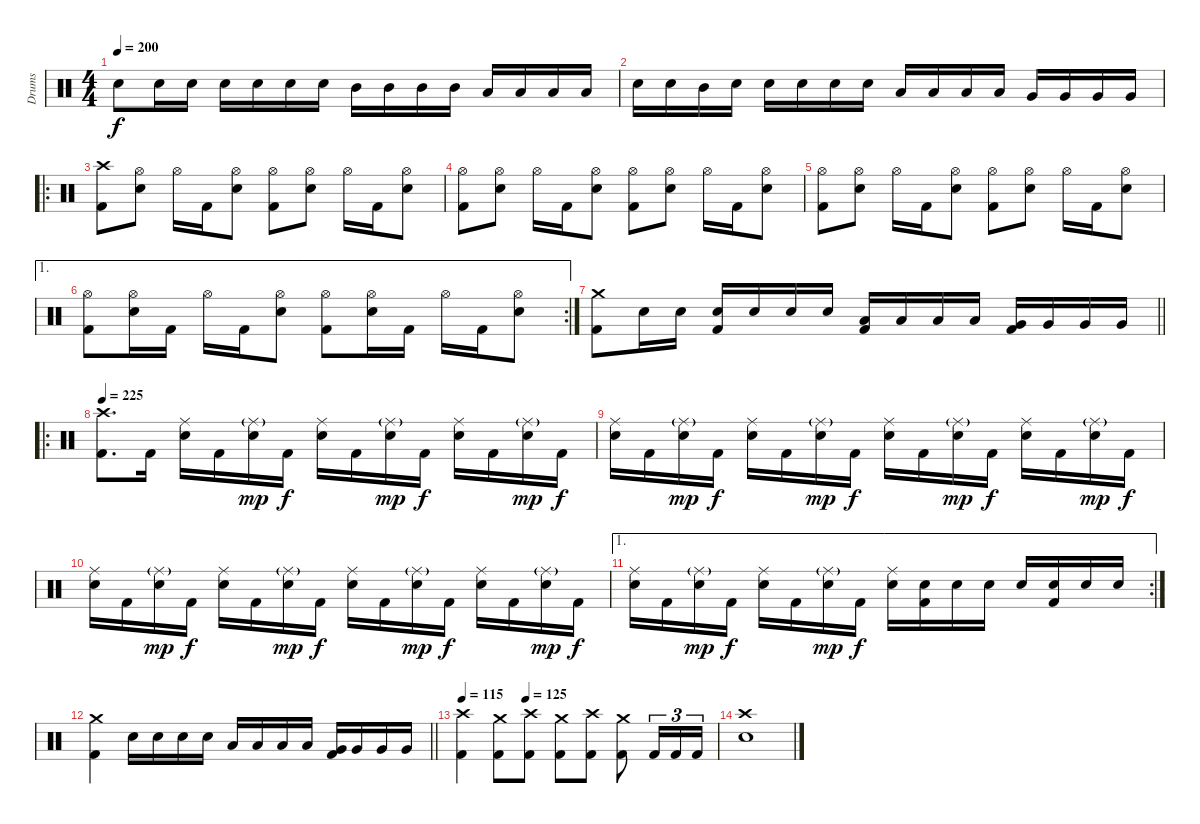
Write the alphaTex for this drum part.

\track ("Drums" "Drums") {instrument percussion}
\staff {score}
\articulation defaults
\ts (4 4)
\tempo 200
\clef neutral
\ks c "Electric Snare (hit)".8{dy f} "Electric Snare (hit)".16 "Electric Snare (hit)".16 "Electric Snare (hit)".16 "Electric Snare (hit)".16 "Electric Snare (hit)".16 "Electric Snare (hit)".16 "Mid Tom (hit)".16 "Mid Tom (hit)".16 "Mid Tom (hit)".16 "Mid Tom (hit)".16 "Low Tom (hit)".16 "Low Tom (hit)".16 "Low Tom (hit)".16 "Low Tom (hit)".16
|
"Electric Snare (hit)".16 "Electric Snare (hit)".16 "Mid Tom (hit)".16 "Electric Snare (hit)".16 "Electric Snare (hit)".16 "Electric Snare (hit)".16 "Electric Snare (hit)".16 "Electric Snare (hit)".16 "Low Tom (hit)".16 "Low Tom (hit)".16 "Low Tom (hit)".16 "Low Tom (hit)".16 "Very Low Tom (hit)".16 "Very Low Tom (hit)".16 "Very Low Tom (hit)".16 "Very Low Tom (hit)".16 |
\ro
("Crash high (hit)" "Kick (hit) 2").8 ("Hi-Hat (open)" "Electric Snare (hit)").8 "Hi-Hat (open)".16 "Kick (hit) 2".16 ("Hi-Hat (open)" "Electric Snare (hit)").8 ("Hi-Hat (open)" "Kick (hit) 2").8 ("Hi-Hat (open)" "Electric Snare (hit)").8 "Hi-Hat (open)".16 "Kick (hit) 2".16 ("Hi-Hat (open)" "Electric Snare (hit)").8 |
("Hi-Hat (open)" "Kick (hit) 2").8 ("Hi-Hat (open)" "Electric Snare (hit)").8 "Hi-Hat (open)".16 "Kick (hit) 2".16 ("Hi-Hat (open)" "Electric Snare (hit)").8 ("Hi-Hat (open)" "Kick (hit) 2").8 ("Hi-Hat (open)" "Electric Snare (hit)").8 "Hi-Hat (open)".16 "Kick (hit) 2".16 ("Hi-Hat (open)" "Electric Snare (hit)").8 |
("Hi-Hat (open)" "Kick (hit) 2").8 ("Hi-Hat (open)" "Electric Snare (hit)").8 "Hi-Hat (open)".16 "Kick (hit) 2".16 ("Hi-Hat (open)" "Electric Snare (hit)").8 ("Hi-Hat (open)" "Kick (hit) 2").8 ("Hi-Hat (open)" "Electric Snare (hit)").8 "Hi-Hat (open)".16 "Kick (hit) 2".16 ("Hi-Hat (open)" "Electric Snare (hit)").8 |
\ae 1
\rc 2
("Hi-Hat (open)" "Kick (hit) 2").8 ("Hi-Hat (open)" "Electric Snare (hit)").16 "Kick (hit) 2".16 "Hi-Hat (open)".16 "Kick (hit) 2".16 ("Hi-Hat (open)" "Electric Snare (hit)").8 ("Hi-Hat (open)" "Kick (hit) 2").8 ("Hi-Hat (open)" "Electric Snare (hit)").16 "Kick (hit) 2".16 "Hi-Hat (open)".16 "Kick (hit) 2".16 ("Hi-Hat (open)" "Electric Snare (hit)").8 |
\barLineRight lightlight
("Crash medium (hit)" "Kick (hit) 2").8 "Electric Snare (hit)".16 "Electric Snare (hit)".16 ("Electric Snare (hit)" "Kick (hit) 2").16 "Electric Snare (hit)".16 "Electric Snare (hit)".16 "Electric Snare (hit)".16 ("Low Tom (hit)" "Kick (hit) 2").16 "Low Tom (hit)".16 "Low Tom (hit)".16 "Low Tom (hit)".16 ("Very Low Tom (hit)" "Kick (hit) 2").16 "Very Low Tom (hit)".16 "Very Low Tom (hit)".16 "Very Low Tom (hit)".16 |
\ro
\section ("" "")
\tempo 225
("Crash high (hit)" "Kick (hit) 2").8{d} "Kick (hit) 2".16 ("Ride (middle)" "Electric Snare (hit)").16 "Kick (hit) 2".16 ("Ride (middle)"{g} "Electric Snare (hit)").16{dy mp} "Kick (hit) 2".16{dy f} ("Ride (middle)" "Electric Snare (hit)").16 "Kick (hit) 2".16 ("Ride (middle)"{g} "Electric Snare (hit)").16{dy mp} "Kick (hit) 2".16{dy f} ("Ride (middle)" "Electric Snare (hit)").16 "Kick (hit) 2".16 ("Ride (middle)"{g} "Electric Snare (hit)").16{dy mp} "Kick (hit) 2".16{dy f} |
("Ride (middle)" "Electric Snare (hit)").16 "Kick (hit) 2".16 ("Ride (middle)"{g} "Electric Snare (hit)").16{dy mp} "Kick (hit) 2".16{dy f} ("Ride (middle)" "Electric Snare (hit)").16 "Kick (hit) 2".16 ("Ride (middle)"{g} "Electric Snare (hit)").16{dy mp} "Kick (hit) 2".16{dy f} ("Ride (middle)" "Electric Snare (hit)").16 "Kick (hit) 2".16 ("Ride (middle)"{g} "Electric Snare (hit)").16{dy mp} "Kick (hit) 2".16{dy f} ("Ride (middle)" "Electric Snare (hit)").16 "Kick (hit) 2".16 ("Ride (middle)"{g} "Electric Snare (hit)").16{dy mp} "Kick (hit) 2".16{dy f} |
("Ride (middle)" "Electric Snare (hit)").16 "Kick (hit) 2".16 ("Ride (middle)"{g} "Electric Snare (hit)").16{dy mp} "Kick (hit) 2".16{dy f} ("Ride (middle)" "Electric Snare (hit)").16 "Kick (hit) 2".16 ("Ride (middle)"{g} "Electric Snare (hit)").16{dy mp} "Kick (hit) 2".16{dy f} ("Ride (middle)" "Electric Snare (hit)").16 "Kick (hit) 2".16 ("Ride (middle)"{g} "Electric Snare (hit)").16{dy mp} "Kick (hit) 2".16{dy f} ("Ride (middle)" "Electric Snare (hit)").16 "Kick (hit) 2".16 ("Ride (middle)"{g} "Electric Snare (hit)").16{dy mp} "Kick (hit) 2".16{dy f} |
\ae 1
\rc 2
("Ride (middle)" "Electric Snare (hit)").16 "Kick (hit) 2".16 ("Ride (middle)"{g} "Electric Snare (hit)").16{dy mp} "Kick (hit) 2".16{dy f} ("Ride (middle)" "Electric Snare (hit)").16 "Kick (hit) 2".16 ("Ride (middle)"{g} "Electric Snare (hit)").16{dy mp} "Kick (hit) 2".16{dy f} ("Ride (middle)" "Electric Snare (hit)").16 ("Electric Snare (hit)" "Kick (hit) 2").16 "Electric Snare (hit)".16 "Electric Snare (hit)".16 "Electric Snare (hit)".16 ("Electric Snare (hit)" "Kick (hit) 2").16 "Electric Snare (hit)".16 "Electric Snare (hit)".16 |
\barLineRight lightlight
("Crash medium (hit)" "Kick (hit) 2").4 "Electric Snare (hit)".16 "Electric Snare (hit)".16 "Electric Snare (hit)".16 "Electric Snare (hit)".16 "Low Tom (hit)".16 "Low Tom (hit)".16 "Low Tom (hit)".16 "Low Tom (hit)".16 ("Very Low Tom (hit)" "Kick (hit) 2").16 "Very Low Tom (hit)".16 "Very Low Tom (hit)".16 "Very Low Tom (hit)".16 |
\section ("" "")
\tempo 115
\tempo (125 0.25)
("Crash high (hit)" "Kick (hit) 2").4 ("Crash medium (hit)" "Kick (hit) 2").8 ("Crash high (hit)" "Kick (hit) 2").8 ("Crash medium (hit)" "Kick (hit) 2").8 ("Crash high (hit)" "Kick (hit) 2").8 ("Crash medium (hit)" "Kick (hit) 2").8 "Kick (hit) 2".16{tu (3 2)} "Kick (hit) 2".16{tu (3 2)} "Kick (hit) 2".16{tu (3 2)} |
("Crash high (hit)" "Electric Snare (hit)").1
